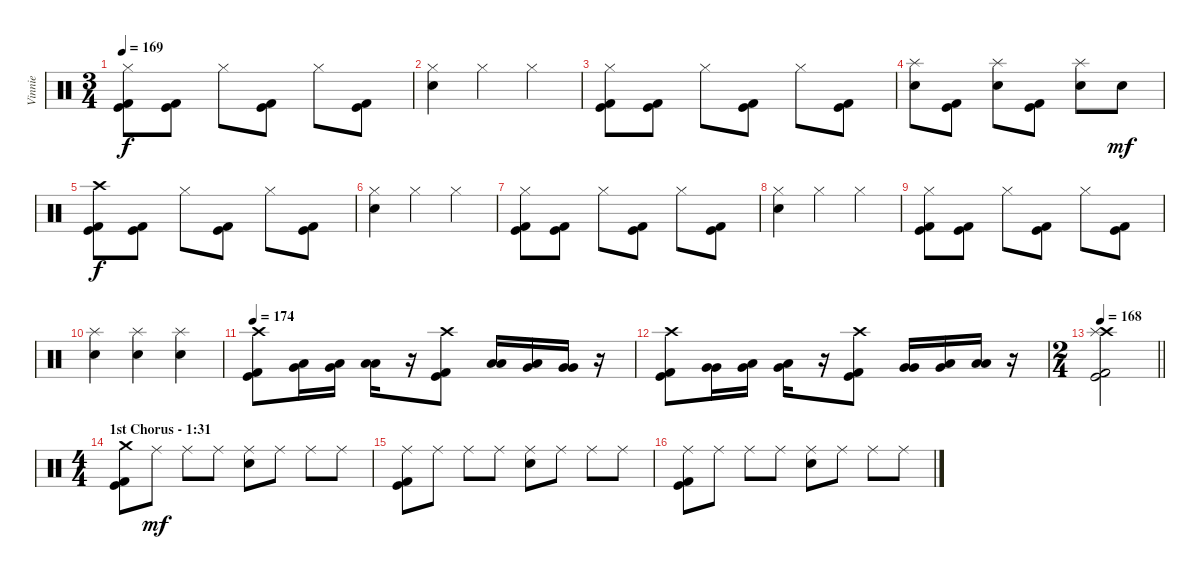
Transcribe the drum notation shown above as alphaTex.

\track ("Vinnie" "Vinnie") {instrument percussion}
\staff {score}
\articulation defaults
\ts (3 4)
\tempo 169
\clef neutral
\ks c
("Hi-Hat (closed)" "Kick (hit)" "Kick (hit) 2").8{dy f} ("Kick (hit)" "Kick (hit) 2").8 "Hi-Hat (closed)".8 ("Kick (hit)" "Kick (hit) 2").8 "Hi-Hat (closed)".8 ("Kick (hit)" "Kick (hit) 2").8 |
("Hi-Hat (closed)" "Electric Snare (hit)").4 "Hi-Hat (closed)".4 "Hi-Hat (closed)".4 |
("Hi-Hat (closed)" "Kick (hit)" "Kick (hit) 2").8 ("Kick (hit)" "Kick (hit) 2").8 "Hi-Hat (closed)".8 ("Kick (hit)" "Kick (hit) 2").8 "Hi-Hat (closed)".8 ("Kick (hit)" "Kick (hit) 2").8 |
("Splash (hit)" "Electric Snare (hit)").8 ("Kick (hit)" "Kick (hit) 2").8 ("Splash (hit)" "Electric Snare (hit)").8 ("Kick (hit)" "Kick (hit) 2").8 ("Splash (hit)" "Electric Snare (hit)").8 "Electric Snare (hit)".8{dy mf} |
("Crash high (hit)" "Kick (hit)" "Kick (hit) 2").8{dy f} ("Kick (hit)" "Kick (hit) 2").8 "Hi-Hat (closed)".8 ("Kick (hit)" "Kick (hit) 2").8 "Hi-Hat (closed)".8 ("Kick (hit)" "Kick (hit) 2").8 |
("Hi-Hat (closed)" "Electric Snare (hit)").4 "Hi-Hat (closed)".4 "Hi-Hat (closed)".4 |
("Hi-Hat (closed)" "Kick (hit)" "Kick (hit) 2").8 ("Kick (hit)" "Kick (hit) 2").8 "Hi-Hat (closed)".8 ("Kick (hit)" "Kick (hit) 2").8 "Hi-Hat (closed)".8 ("Kick (hit)" "Kick (hit) 2").8 |
("Hi-Hat (closed)" "Electric Snare (hit)").4 "Hi-Hat (closed)".4 "Hi-Hat (closed)".4 |
("Hi-Hat (closed)" "Kick (hit)" "Kick (hit) 2").8 ("Kick (hit)" "Kick (hit) 2").8 "Hi-Hat (closed)".8 ("Kick (hit)" "Kick (hit) 2").8 "Hi-Hat (closed)".8 ("Kick (hit)" "Kick (hit) 2").8 |
("Splash (hit)" "Electric Snare (hit)").4 ("Splash (hit)" "Electric Snare (hit)").4 ("Splash (hit)" "Electric Snare (hit)").4 |
\tempo 174
("Crash high (hit)" "Kick (hit)" "Kick (hit) 2").8 ("Very Low Tom (hit)" "Low Tom (hit)").16 ("Very Low Tom (hit)" "Low Tom (hit)").16 ("Low Tom (hit)" "Low Tom (hit)").16 r.16 ("Crash high (hit)" "Kick (hit)" "Kick (hit) 2").8 ("Low Tom (hit)" "Low Tom (hit)").16 ("Low Tom (hit)" "Very Low Tom (hit)").16 ("Very Low Tom (hit)" "Very Low Tom (hit)").16 r.16 |
("Crash high (hit)" "Kick (hit)" "Kick (hit) 2").8 ("Very Low Tom (hit)" "Very Low Tom (hit)").16 ("Very Low Tom (hit)" "Low Floor Tom (hit)").16 ("Very Low Tom (hit)" "Low Floor Tom (hit)").16 r.16 ("Crash high (hit)" "Kick (hit)" "Kick (hit) 2").8 ("Very Low Tom (hit)" "Very Low Tom (hit)").16 ("Very Low Tom (hit)" "Low Floor Tom (hit)").16 ("Low Floor Tom (hit)" "Low Floor Tom (hit)").16 r.16 |
\ts (2 4)
\tempo 168
\barLineRight lightlight
("Crash high (hit)" "Splash (hit)" "Kick (hit)" "Kick (hit) 2").2 |
\ts (4 4)
\section ("" "1st Chorus - 1:31")
("Crash medium (hit)" "Kick (hit)" "Kick (hit) 2").8 "Ride (middle)".8{dy mf} "Ride (middle)".8 "Ride (middle)".8 ("Ride (middle)" "Electric Snare (hit)").8 "Ride (middle)".8 "Ride (middle)".8 "Ride (middle)".8 |
("Ride (middle)" "Kick (hit)" "Kick (hit) 2").8 "Ride (middle)".8 "Ride (middle)".8 "Ride (middle)".8 ("Ride (middle)" "Electric Snare (hit)").8 "Ride (middle)".8 "Ride (middle)".8 "Ride (middle)".8 |
("Ride (middle)" "Kick (hit)" "Kick (hit) 2").8 "Ride (middle)".8 "Ride (middle)".8 "Ride (middle)".8 ("Ride (middle)" "Electric Snare (hit)").8 "Ride (middle)".8 "Ride (middle)".8 "Ride (middle)".8
